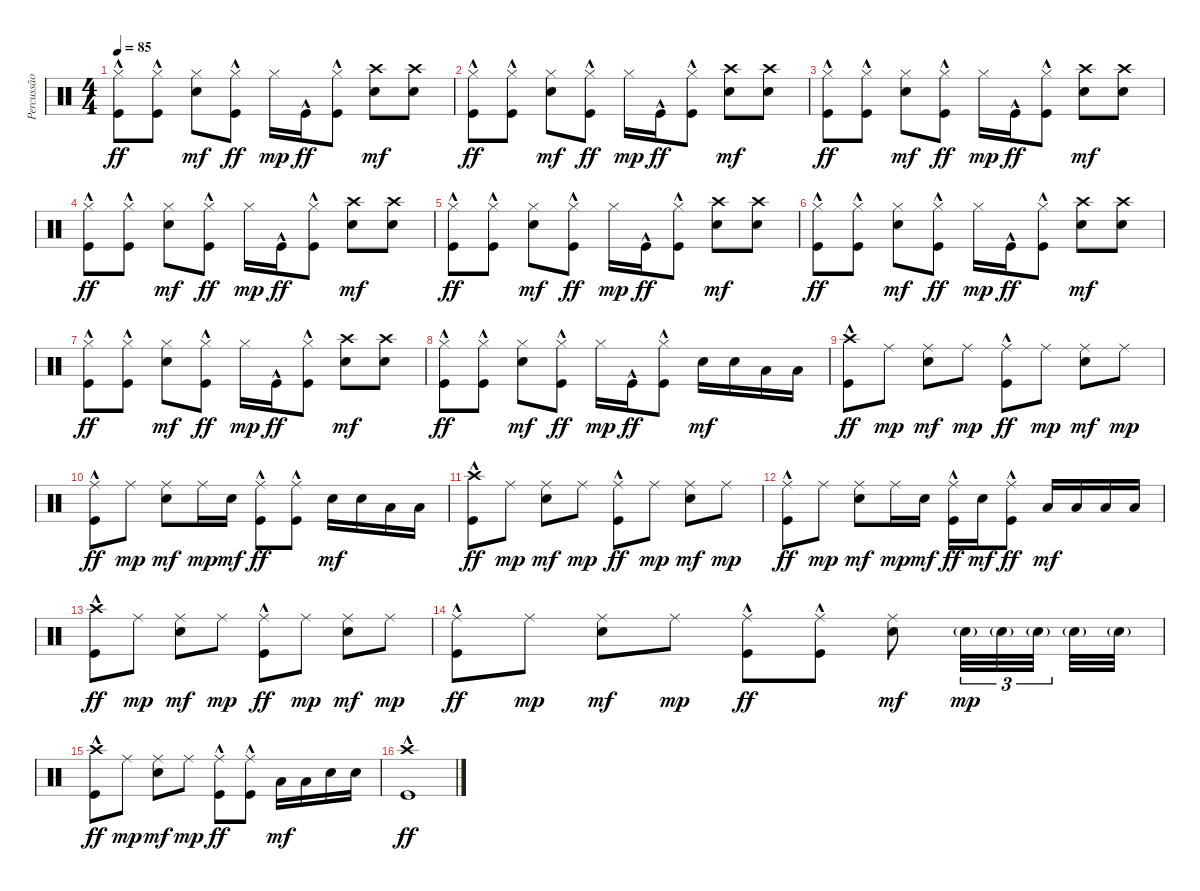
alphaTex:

\track ("Percussão" "Percussão") {instrument percussion}
\staff {score}
\articulation defaults
\ts (4 4)
\tempo 85
\clef neutral
\ks c
("Hi-Hat (closed)" "Kick (hit)"{hac}).8{dy ff} ("Hi-Hat (closed)" "Kick (hit)"{hac}).8 ("Hi-Hat (closed)" "Snare (hit) 2").8{dy mf} ("Hi-Hat (closed)" "Kick (hit)"{hac}).8{dy ff} "Hi-Hat (closed)".16{dy mp} "Kick (hit)"{hac}.16{dy ff} ("Hi-Hat (closed)" "Kick (hit)"{hac}).8 ("Crash high (hit)" "Snare (hit) 2").8{dy mf} ("Crash high (hit)" "Snare (hit) 2").8 |
("Hi-Hat (closed)" "Kick (hit)"{hac}).8{dy ff} ("Hi-Hat (closed)" "Kick (hit)"{hac}).8 ("Hi-Hat (closed)" "Snare (hit) 2").8{dy mf} ("Hi-Hat (closed)" "Kick (hit)"{hac}).8{dy ff} "Hi-Hat (closed)".16{dy mp} "Kick (hit)"{hac}.16{dy ff} ("Hi-Hat (closed)" "Kick (hit)"{hac}).8 ("Crash high (hit)" "Snare (hit) 2").8{dy mf} ("Crash high (hit)" "Snare (hit) 2").8 |
("Hi-Hat (closed)" "Kick (hit)"{hac}).8{dy ff} ("Hi-Hat (closed)" "Kick (hit)"{hac}).8 ("Hi-Hat (closed)" "Snare (hit) 2").8{dy mf} ("Hi-Hat (closed)" "Kick (hit)"{hac}).8{dy ff} "Hi-Hat (closed)".16{dy mp} "Kick (hit)"{hac}.16{dy ff} ("Hi-Hat (closed)" "Kick (hit)"{hac}).8 ("Crash high (hit)" "Snare (hit) 2").8{dy mf} ("Crash high (hit)" "Snare (hit) 2").8 |
("Hi-Hat (closed)" "Kick (hit)"{hac}).8{dy ff} ("Hi-Hat (closed)" "Kick (hit)"{hac}).8 ("Hi-Hat (closed)" "Snare (hit) 2").8{dy mf} ("Hi-Hat (closed)" "Kick (hit)"{hac}).8{dy ff} "Hi-Hat (closed)".16{dy mp} "Kick (hit)"{hac}.16{dy ff} ("Hi-Hat (closed)" "Kick (hit)"{hac}).8 ("Crash high (hit)" "Snare (hit) 2").8{dy mf} ("Crash high (hit)" "Snare (hit) 2").8 |
("Hi-Hat (closed)" "Kick (hit)"{hac}).8{dy ff} ("Hi-Hat (closed)" "Kick (hit)"{hac}).8 ("Hi-Hat (closed)" "Snare (hit) 2").8{dy mf} ("Hi-Hat (closed)" "Kick (hit)"{hac}).8{dy ff} "Hi-Hat (closed)".16{dy mp} "Kick (hit)"{hac}.16{dy ff} ("Hi-Hat (closed)" "Kick (hit)"{hac}).8 ("Crash high (hit)" "Snare (hit) 2").8{dy mf} ("Crash high (hit)" "Snare (hit) 2").8 |
("Hi-Hat (closed)" "Kick (hit)"{hac}).8{dy ff} ("Hi-Hat (closed)" "Kick (hit)"{hac}).8 ("Hi-Hat (closed)" "Snare (hit) 2").8{dy mf} ("Hi-Hat (closed)" "Kick (hit)"{hac}).8{dy ff} "Hi-Hat (closed)".16{dy mp} "Kick (hit)"{hac}.16{dy ff} ("Hi-Hat (closed)" "Kick (hit)"{hac}).8 ("Crash high (hit)" "Snare (hit) 2").8{dy mf} ("Crash high (hit)" "Snare (hit) 2").8 |
("Hi-Hat (closed)" "Kick (hit)"{hac}).8{dy ff} ("Hi-Hat (closed)" "Kick (hit)"{hac}).8 ("Hi-Hat (closed)" "Snare (hit) 2").8{dy mf} ("Hi-Hat (closed)" "Kick (hit)"{hac}).8{dy ff} "Hi-Hat (closed)".16{dy mp} "Kick (hit)"{hac}.16{dy ff} ("Hi-Hat (closed)" "Kick (hit)"{hac}).8 ("Crash high (hit)" "Snare (hit) 2").8{dy mf} ("Crash high (hit)" "Snare (hit) 2").8 |
("Hi-Hat (closed)" "Kick (hit)"{hac}).8{dy ff} ("Hi-Hat (closed)" "Kick (hit)"{hac}).8 ("Hi-Hat (closed)" "Snare (hit) 2").8{dy mf} ("Hi-Hat (closed)" "Kick (hit)"{hac}).8{dy ff} "Hi-Hat (closed)".16{dy mp} "Kick (hit)"{hac}.16{dy ff} ("Hi-Hat (closed)" "Kick (hit)"{hac}).8 "Snare (hit) 2".16{dy mf} "Snare (hit) 2".16 "Low Tom (hit)".16 "Low Tom (hit)".16 |
("Crash high (hit)" "Kick (hit)"{hac}).8{dy ff} "Ride (middle)".8{dy mp} ("Ride (middle)" "Snare (hit) 2").8{dy mf} "Ride (middle)".8{dy mp} ("Ride (middle)" "Kick (hit)"{hac}).8{dy ff} "Ride (middle)".8{dy mp} ("Ride (middle)" "Snare (hit) 2").8{dy mf} "Ride (middle)".8{dy mp} |
("Ride (middle)" "Kick (hit)"{hac}).8{dy ff} "Ride (middle)".8{dy mp} ("Ride (middle)" "Snare (hit) 2").8{dy mf} "Ride (middle)".16{dy mp} "Snare (hit) 2".16{dy mf} ("Ride (middle)" "Kick (hit)"{hac}).8{dy ff} ("Ride (middle)" "Kick (hit)"{hac}).8 "Snare (hit) 2".16{dy mf} "Snare (hit) 2".16 "Low Tom (hit)".16 "Low Tom (hit)".16 |
("Crash high (hit)" "Kick (hit)"{hac}).8{dy ff} "Ride (middle)".8{dy mp} ("Ride (middle)" "Snare (hit) 2").8{dy mf} "Ride (middle)".8{dy mp} ("Ride (middle)" "Kick (hit)"{hac}).8{dy ff} "Ride (middle)".8{dy mp} ("Ride (middle)" "Snare (hit) 2").8{dy mf} "Ride (middle)".8{dy mp} |
("Ride (middle)" "Kick (hit)"{hac}).8{dy ff} "Ride (middle)".8{dy mp} ("Ride (middle)" "Snare (hit) 2").8{dy mf} "Ride (middle)".16{dy mp} "Snare (hit) 2".16{dy mf} ("Ride (middle)" "Kick (hit)"{hac}).16{dy ff} "Snare (hit) 2".16{dy mf} ("Ride (middle)" "Kick (hit)"{hac}).8{dy ff} "Low Tom (hit)".16{dy mf} "Low Tom (hit)".16 "Low Tom (hit)".16 "Low Tom (hit)".16 |
("Crash high (hit)" "Kick (hit)"{hac}).8{dy ff} "Ride (middle)".8{dy mp} ("Ride (middle)" "Snare (hit) 2").8{dy mf} "Ride (middle)".8{dy mp} ("Ride (middle)" "Kick (hit)"{hac}).8{dy ff} "Ride (middle)".8{dy mp} ("Ride (middle)" "Snare (hit) 2").8{dy mf} "Ride (middle)".8{dy mp} |
("Ride (middle)" "Kick (hit)"{hac}).8{dy ff} "Ride (middle)".8{dy mp} ("Ride (middle)" "Snare (hit) 2").8{dy mf} "Ride (middle)".8{dy mp} ("Ride (middle)" "Kick (hit)"{hac}).8{dy ff} ("Ride (middle)" "Kick (hit)"{hac}).8 ("Ride (middle)" "Snare (hit) 2").8{dy mf} "Snare (hit) 2"{g}.32{tu (3 2) dy mp} "Snare (hit) 2"{g}.32{tu (3 2)} "Snare (hit) 2"{g}.32{tu (3 2) beam splitsecondary} "Snare (hit) 2"{g}.32 "Snare (hit) 2"{g}.32 |
("Crash high (hit)" "Kick (hit)"{hac}).8{dy ff} "Ride (middle)".8{dy mp} ("Ride (middle)" "Snare (hit) 2").8{dy mf} "Ride (middle)".8{dy mp} ("Ride (middle)" "Kick (hit)"{hac}).8{dy ff} ("Ride (middle)" "Kick (hit)"{hac}).8 "Low Tom (hit)".16{dy mf} "Low Tom (hit)".16 "Snare (hit) 2".16 "Snare (hit) 2".16 |
("Crash high (hit)" "Kick (hit)"{hac}).1{dy ff}
